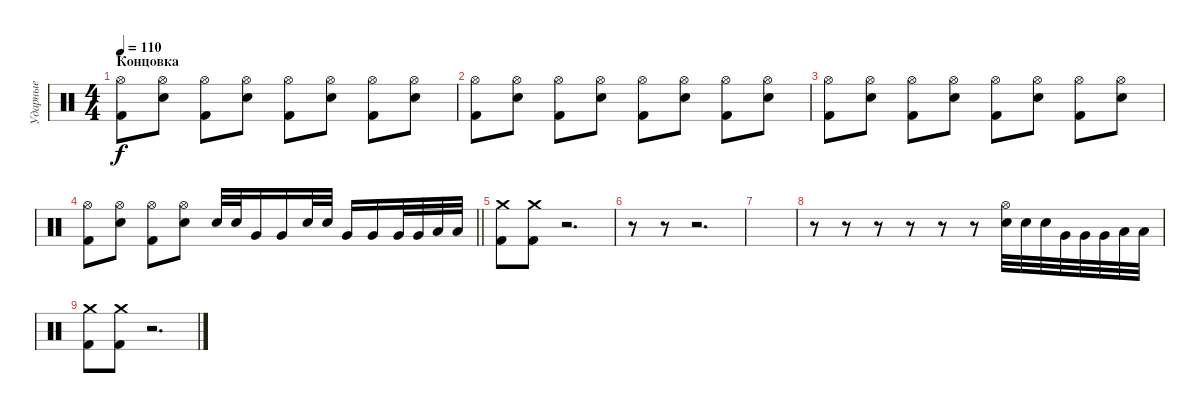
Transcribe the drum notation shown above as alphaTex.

\track ("Ударные" "Ударные") {instrument percussion}
\staff {score}
\articulation defaults
\ts (4 4)
\section ("" "Концовка")
\tempo 110
\clef neutral
\ks c
("Hi-Hat (open)" "Kick (hit) 2").8{dy f} ("Hi-Hat (open)" "Snare (hit) 2").8 ("Hi-Hat (open)" "Kick (hit) 2").8 ("Hi-Hat (open)" "Snare (hit) 2").8 ("Hi-Hat (open)" "Kick (hit) 2").8 ("Hi-Hat (open)" "Snare (hit) 2").8 ("Hi-Hat (open)" "Kick (hit) 2").8 ("Hi-Hat (open)" "Snare (hit) 2").8 |
("Hi-Hat (open)" "Kick (hit) 2").8 ("Hi-Hat (open)" "Snare (hit) 2").8 ("Hi-Hat (open)" "Kick (hit) 2").8 ("Hi-Hat (open)" "Snare (hit) 2").8 ("Hi-Hat (open)" "Kick (hit) 2").8 ("Hi-Hat (open)" "Snare (hit) 2").8 ("Hi-Hat (open)" "Kick (hit) 2").8 ("Hi-Hat (open)" "Snare (hit) 2").8 |
("Hi-Hat (open)" "Kick (hit) 2").8 ("Hi-Hat (open)" "Snare (hit) 2").8 ("Hi-Hat (open)" "Kick (hit) 2").8 ("Hi-Hat (open)" "Snare (hit) 2").8 ("Hi-Hat (open)" "Kick (hit) 2").8 ("Hi-Hat (open)" "Snare (hit) 2").8 ("Hi-Hat (open)" "Kick (hit) 2").8 ("Hi-Hat (open)" "Snare (hit) 2").8 |
\barLineRight lightlight
("Hi-Hat (open)" "Kick (hit) 2").8 ("Hi-Hat (open)" "Snare (hit) 2").8 ("Hi-Hat (open)" "Kick (hit) 2").8 ("Hi-Hat (open)" "Snare (hit) 2").8 "Snare (hit) 2".32 "Snare (hit) 2".32 "Very Low Tom (hit)".16 "Very Low Tom (hit)".16 "Snare (hit) 2".32 "Snare (hit) 2".32 "Very Low Tom (hit)".16 "Very Low Tom (hit)".16 "Very Low Tom (hit)".32 "Very Low Tom (hit)".32 "Low Tom (hit)".32 "Low Tom (hit)".32 |
("Crash medium (hit)" "Kick (hit) 2").8 ("Crash medium (hit)" "Kick (hit) 2").8 r.2{d} |
r.8 r.8 r.2{d} |
|
r.8 r.8 r.8 r.8 r.8 r.8 ("Hi-Hat (open)" "Snare (hit) 2").32 "Snare (hit) 2".32 "Snare (hit) 2".32 "Very Low Tom (hit)".32 "Very Low Tom (hit)".32 "Very Low Tom (hit)".32 "Low Tom (hit)".32 "Low Tom (hit)".32 |
("Crash medium (hit)" "Kick (hit) 2").8 ("Crash medium (hit)" "Kick (hit) 2").8 r.2{d}
